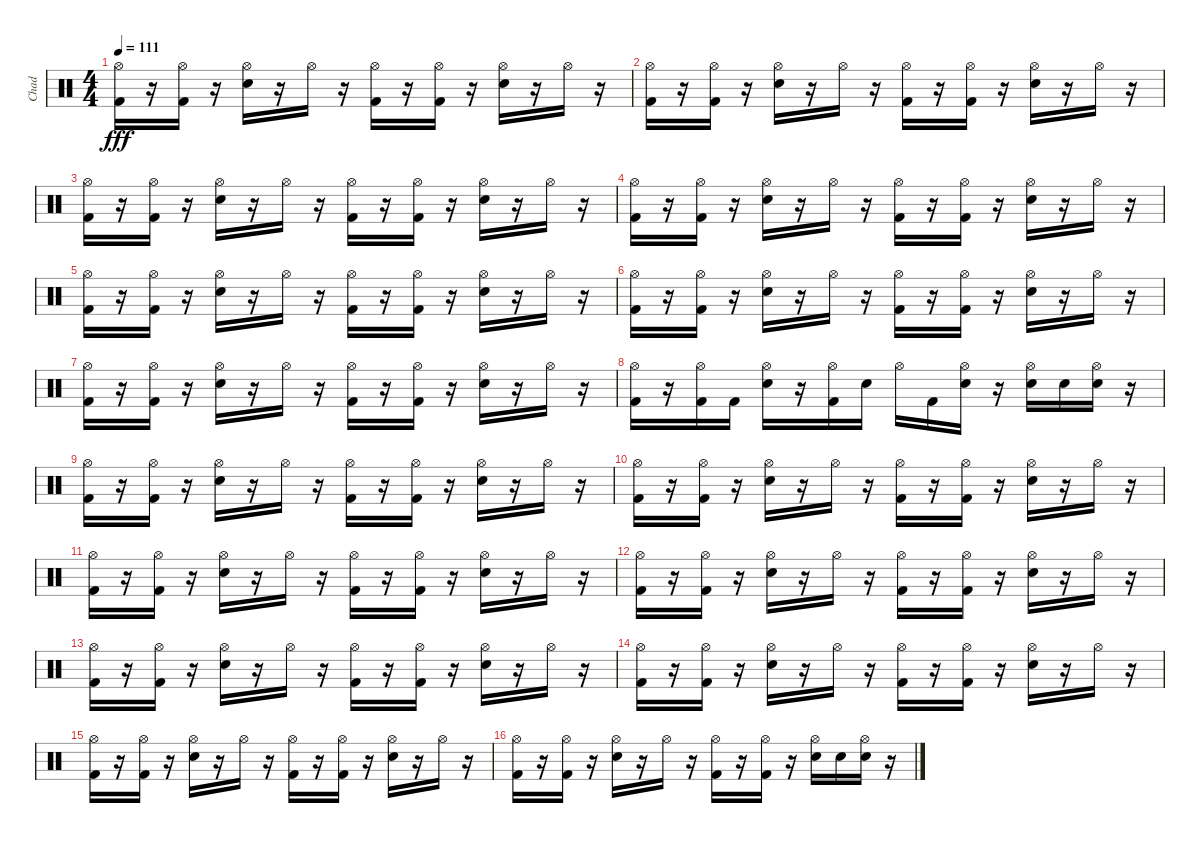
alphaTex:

\track ("Chad" "Chad") {instrument percussion}
\staff {score}
\articulation defaults
\ts (4 4)
\tempo 111
\clef neutral
\ks c
("Hi-Hat (open)" "Kick (hit) 2").16{dy fff} r.16 ("Hi-Hat (open)" "Kick (hit) 2").16 r.16 ("Hi-Hat (open)" "Electric Snare (hit)").16 r.16 "Hi-Hat (open)".16 r.16 ("Hi-Hat (open)" "Kick (hit) 2").16 r.16 ("Hi-Hat (open)" "Kick (hit) 2").16 r.16 ("Hi-Hat (open)" "Electric Snare (hit)").16 r.16 "Hi-Hat (open)".16 r.16 |
("Hi-Hat (open)" "Kick (hit) 2").16 r.16 ("Hi-Hat (open)" "Kick (hit) 2").16 r.16 ("Hi-Hat (open)" "Electric Snare (hit)").16 r.16 "Hi-Hat (open)".16 r.16 ("Hi-Hat (open)" "Kick (hit) 2").16 r.16 ("Hi-Hat (open)" "Kick (hit) 2").16 r.16 ("Hi-Hat (open)" "Electric Snare (hit)").16 r.16 "Hi-Hat (open)".16 r.16 |
("Hi-Hat (open)" "Kick (hit) 2").16 r.16 ("Hi-Hat (open)" "Kick (hit) 2").16 r.16 ("Hi-Hat (open)" "Electric Snare (hit)").16 r.16 "Hi-Hat (open)".16 r.16 ("Hi-Hat (open)" "Kick (hit) 2").16 r.16 ("Hi-Hat (open)" "Kick (hit) 2").16 r.16 ("Hi-Hat (open)" "Electric Snare (hit)").16 r.16 "Hi-Hat (open)".16 r.16 |
("Hi-Hat (open)" "Kick (hit) 2").16 r.16 ("Hi-Hat (open)" "Kick (hit) 2").16 r.16 ("Hi-Hat (open)" "Electric Snare (hit)").16 r.16 "Hi-Hat (open)".16 r.16 ("Hi-Hat (open)" "Kick (hit) 2").16 r.16 ("Hi-Hat (open)" "Kick (hit) 2").16 r.16 ("Hi-Hat (open)" "Electric Snare (hit)").16 r.16 "Hi-Hat (open)".16 r.16 |
("Hi-Hat (open)" "Kick (hit) 2").16 r.16 ("Hi-Hat (open)" "Kick (hit) 2").16 r.16 ("Hi-Hat (open)" "Electric Snare (hit)").16 r.16 "Hi-Hat (open)".16 r.16 ("Hi-Hat (open)" "Kick (hit) 2").16 r.16 ("Hi-Hat (open)" "Kick (hit) 2").16 r.16 ("Hi-Hat (open)" "Electric Snare (hit)").16 r.16 "Hi-Hat (open)".16 r.16 |
("Hi-Hat (open)" "Kick (hit) 2").16 r.16 ("Hi-Hat (open)" "Kick (hit) 2").16 r.16 ("Hi-Hat (open)" "Electric Snare (hit)").16 r.16 "Hi-Hat (open)".16 r.16 ("Hi-Hat (open)" "Kick (hit) 2").16 r.16 ("Hi-Hat (open)" "Kick (hit) 2").16 r.16 ("Hi-Hat (open)" "Electric Snare (hit)").16 r.16 "Hi-Hat (open)".16 r.16 |
("Hi-Hat (open)" "Kick (hit) 2").16 r.16 ("Hi-Hat (open)" "Kick (hit) 2").16 r.16 ("Hi-Hat (open)" "Electric Snare (hit)").16 r.16 "Hi-Hat (open)".16 r.16 ("Hi-Hat (open)" "Kick (hit) 2").16 r.16 ("Hi-Hat (open)" "Kick (hit) 2").16 r.16 ("Hi-Hat (open)" "Electric Snare (hit)").16 r.16 "Hi-Hat (open)".16 r.16 |
("Hi-Hat (open)" "Kick (hit) 2").16 r.16 ("Hi-Hat (open)" "Kick (hit) 2").16 "Kick (hit) 2".16 ("Hi-Hat (open)" "Electric Snare (hit)").16 r.16 ("Hi-Hat (open)" "Kick (hit) 2").16 "Electric Snare (hit)".16 "Hi-Hat (open)".16 "Kick (hit) 2".16 ("Hi-Hat (open)" "Electric Snare (hit)").16 r.16 ("Hi-Hat (open)" "Electric Snare (hit)").16 "Electric Snare (hit)".16 ("Hi-Hat (open)" "Electric Snare (hit)").16 r.16 |
("Hi-Hat (open)" "Kick (hit) 2").16 r.16 ("Hi-Hat (open)" "Kick (hit) 2").16 r.16 ("Hi-Hat (open)" "Electric Snare (hit)").16 r.16 "Hi-Hat (open)".16 r.16 ("Hi-Hat (open)" "Kick (hit) 2").16 r.16 ("Hi-Hat (open)" "Kick (hit) 2").16 r.16 ("Hi-Hat (open)" "Electric Snare (hit)").16 r.16 "Hi-Hat (open)".16 r.16 |
("Hi-Hat (open)" "Kick (hit) 2").16 r.16 ("Hi-Hat (open)" "Kick (hit) 2").16 r.16 ("Hi-Hat (open)" "Electric Snare (hit)").16 r.16 "Hi-Hat (open)".16 r.16 ("Hi-Hat (open)" "Kick (hit) 2").16 r.16 ("Hi-Hat (open)" "Kick (hit) 2").16 r.16 ("Hi-Hat (open)" "Electric Snare (hit)").16 r.16 "Hi-Hat (open)".16 r.16 |
("Hi-Hat (open)" "Kick (hit) 2").16 r.16 ("Hi-Hat (open)" "Kick (hit) 2").16 r.16 ("Hi-Hat (open)" "Electric Snare (hit)").16 r.16 "Hi-Hat (open)".16 r.16 ("Hi-Hat (open)" "Kick (hit) 2").16 r.16 ("Hi-Hat (open)" "Kick (hit) 2").16 r.16 ("Hi-Hat (open)" "Electric Snare (hit)").16 r.16 "Hi-Hat (open)".16 r.16 |
("Hi-Hat (open)" "Kick (hit) 2").16 r.16 ("Hi-Hat (open)" "Kick (hit) 2").16 r.16 ("Hi-Hat (open)" "Electric Snare (hit)").16 r.16 "Hi-Hat (open)".16 r.16 ("Hi-Hat (open)" "Kick (hit) 2").16 r.16 ("Hi-Hat (open)" "Kick (hit) 2").16 r.16 ("Hi-Hat (open)" "Electric Snare (hit)").16 r.16 "Hi-Hat (open)".16 r.16 |
("Hi-Hat (open)" "Kick (hit) 2").16 r.16 ("Hi-Hat (open)" "Kick (hit) 2").16 r.16 ("Hi-Hat (open)" "Electric Snare (hit)").16 r.16 "Hi-Hat (open)".16 r.16 ("Hi-Hat (open)" "Kick (hit) 2").16 r.16 ("Hi-Hat (open)" "Kick (hit) 2").16 r.16 ("Hi-Hat (open)" "Electric Snare (hit)").16 r.16 "Hi-Hat (open)".16 r.16 |
("Hi-Hat (open)" "Kick (hit) 2").16 r.16 ("Hi-Hat (open)" "Kick (hit) 2").16 r.16 ("Hi-Hat (open)" "Electric Snare (hit)").16 r.16 "Hi-Hat (open)".16 r.16 ("Hi-Hat (open)" "Kick (hit) 2").16 r.16 ("Hi-Hat (open)" "Kick (hit) 2").16 r.16 ("Hi-Hat (open)" "Electric Snare (hit)").16 r.16 "Hi-Hat (open)".16 r.16 |
("Hi-Hat (open)" "Kick (hit) 2").16 r.16 ("Hi-Hat (open)" "Kick (hit) 2").16 r.16 ("Hi-Hat (open)" "Electric Snare (hit)").16 r.16 "Hi-Hat (open)".16 r.16 ("Hi-Hat (open)" "Kick (hit) 2").16 r.16 ("Hi-Hat (open)" "Kick (hit) 2").16 r.16 ("Hi-Hat (open)" "Electric Snare (hit)").16 r.16 "Hi-Hat (open)".16 r.16 |
("Hi-Hat (open)" "Kick (hit) 2").16 r.16 ("Hi-Hat (open)" "Kick (hit) 2").16 r.16 ("Hi-Hat (open)" "Electric Snare (hit)").16 r.16 "Hi-Hat (open)".16 r.16 ("Hi-Hat (open)" "Kick (hit) 2").16 r.16 ("Hi-Hat (open)" "Kick (hit) 2").16 r.16 ("Hi-Hat (open)" "Electric Snare (hit)").16 "Electric Snare (hit)".16 ("Hi-Hat (open)" "Electric Snare (hit)").16 r.16
